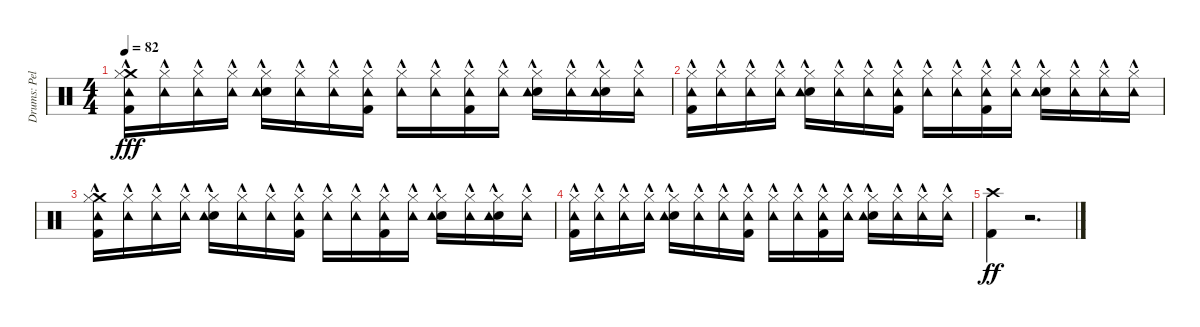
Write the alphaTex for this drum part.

\track ("Drums: Pelle" "Drums: Pel") {instrument percussion}
\staff {score}
\articulation defaults
\ts (4 4)
\tempo 82
\clef neutral
\ks c
("Crash medium (hit)"{hac} "Hi-Hat (closed)"{hac} "Tambourine (hit)"{hac} "Kick (hit) 2"{hac}).16{dy fff} ("Hi-Hat (closed)"{hac} "Tambourine (hit)"{hac}).16 ("Hi-Hat (closed)"{hac} "Tambourine (hit)"{hac}).16 ("Hi-Hat (closed)"{hac} "Tambourine (hit)"{hac}).16 ("Hi-Hat (closed)"{hac} "Snare (hit) 2"{hac} "Tambourine (hit)"{hac}).16 ("Hi-Hat (closed)"{hac} "Tambourine (hit)"{hac}).16 ("Hi-Hat (closed)"{hac} "Tambourine (hit)"{hac}).16 ("Hi-Hat (closed)"{hac} "Tambourine (hit)"{hac} "Kick (hit) 2"{hac}).16 ("Hi-Hat (closed)"{hac} "Tambourine (hit)"{hac}).16 ("Hi-Hat (closed)"{hac} "Tambourine (hit)"{hac}).16 ("Hi-Hat (closed)"{hac} "Tambourine (hit)"{hac} "Kick (hit) 2"{hac}).16 ("Hi-Hat (closed)"{hac} "Tambourine (hit)"{hac}).16 ("Hi-Hat (closed)"{hac} "Snare (hit) 2"{hac} "Tambourine (hit)"{hac}).16 ("Hi-Hat (closed)"{hac} "Tambourine (hit)"{hac}).16 ("Hi-Hat (closed)"{hac} "Snare (hit) 2"{hac} "Tambourine (hit)"{hac}).16 ("Hi-Hat (closed)"{hac} "Tambourine (hit)"{hac}).16 |
("Hi-Hat (closed)"{hac} "Tambourine (hit)"{hac} "Kick (hit) 2"{hac}).16 ("Hi-Hat (closed)"{hac} "Tambourine (hit)"{hac}).16 ("Hi-Hat (closed)"{hac} "Tambourine (hit)"{hac}).16 ("Hi-Hat (closed)"{hac} "Tambourine (hit)"{hac}).16 ("Hi-Hat (closed)"{hac} "Snare (hit) 2"{hac} "Tambourine (hit)"{hac}).16 ("Hi-Hat (closed)"{hac} "Tambourine (hit)"{hac}).16 ("Hi-Hat (closed)"{hac} "Tambourine (hit)"{hac}).16 ("Hi-Hat (closed)"{hac} "Tambourine (hit)"{hac} "Kick (hit) 2"{hac}).16 ("Hi-Hat (closed)"{hac} "Tambourine (hit)"{hac}).16 ("Hi-Hat (closed)"{hac} "Tambourine (hit)"{hac}).16 ("Hi-Hat (closed)"{hac} "Tambourine (hit)"{hac} "Kick (hit) 2"{hac}).16 ("Hi-Hat (closed)"{hac} "Tambourine (hit)"{hac}).16 ("Hi-Hat (closed)"{hac} "Snare (hit) 2"{hac} "Tambourine (hit)"{hac}).16 ("Hi-Hat (closed)"{hac} "Tambourine (hit)"{hac}).16 ("Hi-Hat (closed)"{hac} "Tambourine (hit)"{hac}).16 ("Hi-Hat (closed)"{hac} "Tambourine (hit)"{hac}).16 |
("Crash medium (hit)"{hac} "Hi-Hat (closed)"{hac} "Tambourine (hit)"{hac} "Kick (hit) 2"{hac}).16 ("Hi-Hat (closed)"{hac} "Tambourine (hit)"{hac}).16 ("Hi-Hat (closed)"{hac} "Tambourine (hit)"{hac}).16 ("Hi-Hat (closed)"{hac} "Tambourine (hit)"{hac}).16 ("Hi-Hat (closed)"{hac} "Snare (hit) 2"{hac} "Tambourine (hit)"{hac}).16 ("Hi-Hat (closed)"{hac} "Tambourine (hit)"{hac}).16 ("Hi-Hat (closed)"{hac} "Tambourine (hit)"{hac}).16 ("Hi-Hat (closed)"{hac} "Tambourine (hit)"{hac} "Kick (hit) 2"{hac}).16 ("Hi-Hat (closed)"{hac} "Tambourine (hit)"{hac}).16 ("Hi-Hat (closed)"{hac} "Tambourine (hit)"{hac}).16 ("Hi-Hat (closed)"{hac} "Tambourine (hit)"{hac} "Kick (hit) 2"{hac}).16 ("Hi-Hat (closed)"{hac} "Tambourine (hit)"{hac}).16 ("Hi-Hat (closed)"{hac} "Snare (hit) 2"{hac} "Tambourine (hit)"{hac}).16 ("Hi-Hat (closed)"{hac} "Tambourine (hit)"{hac}).16 ("Hi-Hat (closed)"{hac} "Snare (hit) 2"{hac} "Tambourine (hit)"{hac}).16 ("Hi-Hat (closed)"{hac} "Tambourine (hit)"{hac}).16 |
("Hi-Hat (closed)"{hac} "Tambourine (hit)"{hac} "Kick (hit) 2"{hac}).16 ("Hi-Hat (closed)"{hac} "Tambourine (hit)"{hac}).16 ("Hi-Hat (closed)"{hac} "Tambourine (hit)"{hac}).16 ("Hi-Hat (closed)"{hac} "Tambourine (hit)"{hac}).16 ("Hi-Hat (closed)"{hac} "Snare (hit) 2"{hac} "Tambourine (hit)"{hac}).16 ("Hi-Hat (closed)"{hac} "Tambourine (hit)"{hac}).16 ("Hi-Hat (closed)"{hac} "Tambourine (hit)"{hac}).16 ("Hi-Hat (closed)"{hac} "Tambourine (hit)"{hac} "Kick (hit) 2"{hac}).16 ("Hi-Hat (closed)"{hac} "Tambourine (hit)"{hac}).16 ("Hi-Hat (closed)"{hac} "Tambourine (hit)"{hac}).16 ("Hi-Hat (closed)"{hac} "Tambourine (hit)"{hac} "Kick (hit) 2"{hac}).16 ("Hi-Hat (closed)"{hac} "Tambourine (hit)"{hac}).16 ("Hi-Hat (closed)"{hac} "Snare (hit) 2"{hac} "Tambourine (hit)"{hac}).16 ("Hi-Hat (closed)"{hac} "Tambourine (hit)"{hac}).16 ("Hi-Hat (closed)"{hac} "Tambourine (hit)"{hac}).16 ("Hi-Hat (closed)"{hac} "Tambourine (hit)"{hac}).16 |
("Crash high (hit)" "Kick (hit) 2").4{dy ff} r.2{d}
